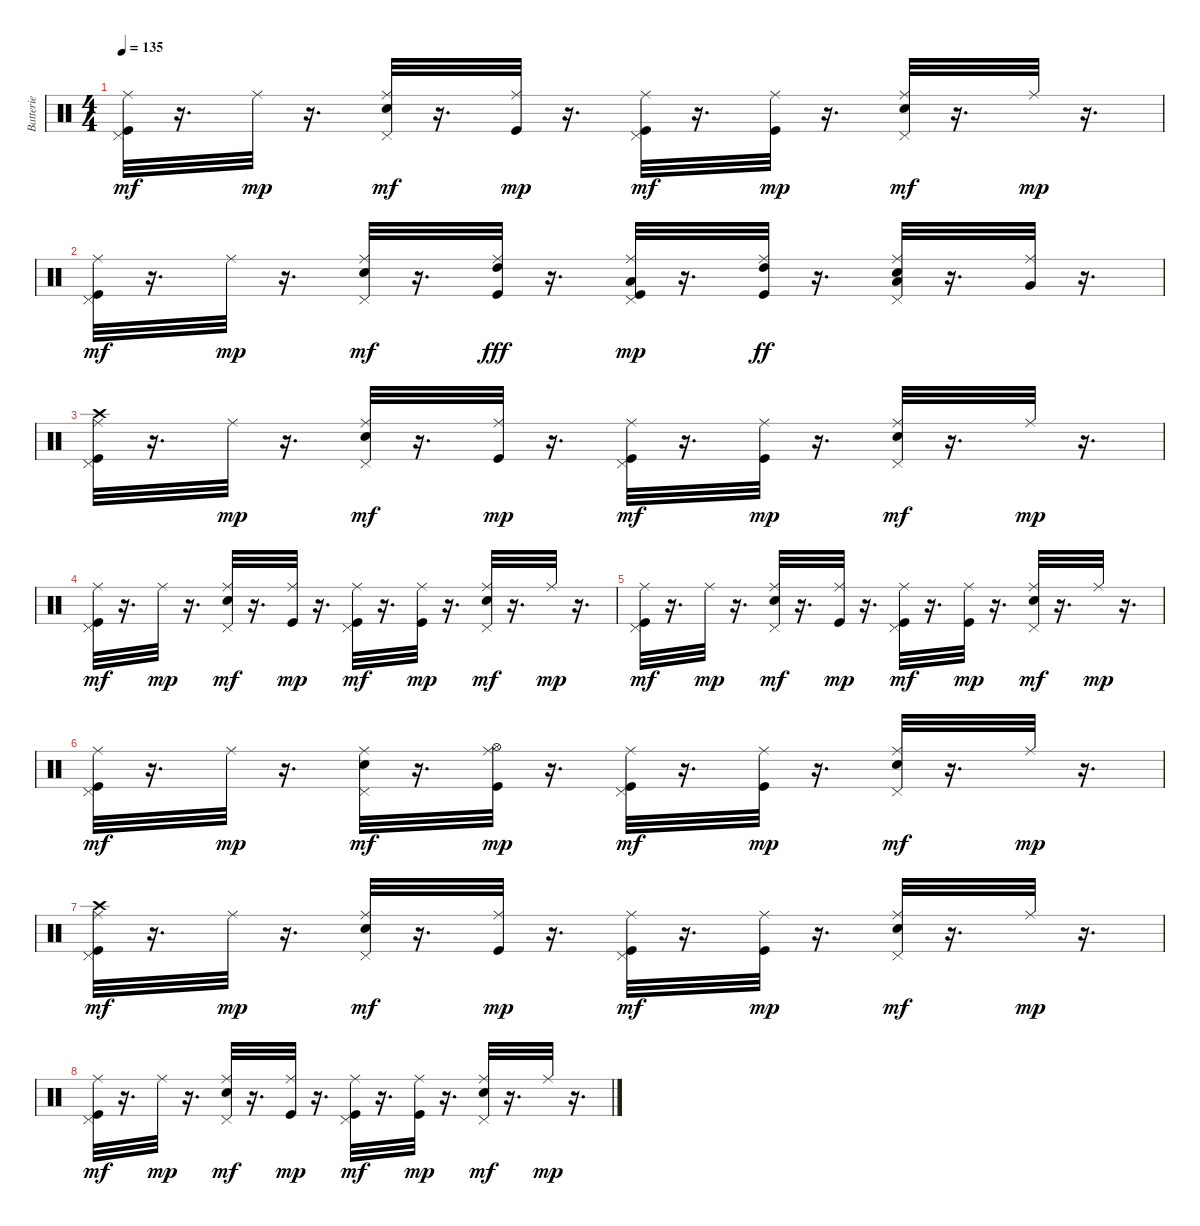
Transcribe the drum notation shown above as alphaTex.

\track ("Batterie" "Batterie") {instrument percussion}
\staff {score}
\articulation defaults
\ts (4 4)
\tempo 135
\clef neutral
\ks c
("Kick (hit)" "Pedal Hi-Hat (hit)" "Ride (middle)").32{dy mf} r.16{d} "Ride (middle)".32{dy mp} r.16{d} ("Electric Snare (hit)" "Pedal Hi-Hat (hit)" "Ride (middle)").32{dy mf} r.16{d} ("Kick (hit)" "Ride (middle)").32{dy mp} r.16{d} ("Kick (hit)" "Pedal Hi-Hat (hit)" "Ride (middle)").32{dy mf} r.16{d} ("Kick (hit)" "Ride (middle)").32{dy mp} r.16{d} ("Electric Snare (hit)" "Pedal Hi-Hat (hit)" "Ride (middle)").32{dy mf} r.16{d} "Ride (middle)".32{dy mp} r.16{d} |
("Kick (hit)" "Pedal Hi-Hat (hit)" "Ride (middle)").32{dy mf} r.16{d} "Ride (middle)".32{dy mp} r.16{d} ("Electric Snare (hit)" "Pedal Hi-Hat (hit)" "Ride (middle)").32{dy mf} r.16{d} ("Kick (hit)" "Ride (middle)" "High Tom (hit)").32{dy fff} r.16{d} ("Kick (hit)" "Pedal Hi-Hat (hit)" "Ride (middle)" "Low Tom (hit)").32{dy mp} r.16{d} ("Kick (hit)" "Ride (middle)" "High Tom (hit)").32{dy ff} r.16{d} ("Electric Snare (hit)" "Pedal Hi-Hat (hit)" "Ride (middle)" "Low Tom (hit)").32 r.16{d} ("Ride (middle)" "Very Low Tom (hit)").32 r.16{d} |
("Kick (hit)" "Pedal Hi-Hat (hit)" "Ride (middle)" "Crash high (hit)").32 r.16{d} "Ride (middle)".32{dy mp} r.16{d} ("Electric Snare (hit)" "Pedal Hi-Hat (hit)" "Ride (middle)").32{dy mf} r.16{d} ("Kick (hit)" "Ride (middle)").32{dy mp} r.16{d} ("Kick (hit)" "Pedal Hi-Hat (hit)" "Ride (middle)").32{dy mf} r.16{d} ("Kick (hit)" "Ride (middle)").32{dy mp} r.16{d} ("Electric Snare (hit)" "Pedal Hi-Hat (hit)" "Ride (middle)").32{dy mf} r.16{d} "Ride (middle)".32{dy mp} r.16{d} |
("Kick (hit)" "Pedal Hi-Hat (hit)" "Ride (middle)").32{dy mf} r.16{d} "Ride (middle)".32{dy mp} r.16{d} ("Electric Snare (hit)" "Pedal Hi-Hat (hit)" "Ride (middle)").32{dy mf} r.16{d} ("Kick (hit)" "Ride (middle)").32{dy mp} r.16{d} ("Kick (hit)" "Pedal Hi-Hat (hit)" "Ride (middle)").32{dy mf} r.16{d} ("Kick (hit)" "Ride (middle)").32{dy mp} r.16{d} ("Electric Snare (hit)" "Pedal Hi-Hat (hit)" "Ride (middle)").32{dy mf} r.16{d} "Ride (middle)".32{dy mp} r.16{d} |
("Kick (hit)" "Pedal Hi-Hat (hit)" "Ride (middle)").32{dy mf} r.16{d} "Ride (middle)".32{dy mp} r.16{d} ("Electric Snare (hit)" "Pedal Hi-Hat (hit)" "Ride (middle)").32{dy mf} r.16{d} ("Kick (hit)" "Ride (middle)").32{dy mp} r.16{d} ("Kick (hit)" "Pedal Hi-Hat (hit)" "Ride (middle)").32{dy mf} r.16{d} ("Kick (hit)" "Ride (middle)").32{dy mp} r.16{d} ("Electric Snare (hit)" "Pedal Hi-Hat (hit)" "Ride (middle)").32{dy mf} r.16{d} "Ride (middle)".32{dy mp} r.16{d} |
("Kick (hit)" "Pedal Hi-Hat (hit)" "Ride (middle)").32{dy mf} r.16{d} "Ride (middle)".32{dy mp} r.16{d} ("Electric Snare (hit)" "Pedal Hi-Hat (hit)" "Ride (middle)").32{dy mf} r.16{d} ("Kick (hit)" "Ride (middle)" "Hi-Hat (open)").32{dy mp} r.16{d} ("Kick (hit)" "Pedal Hi-Hat (hit)" "Ride (middle)").32{dy mf} r.16{d} ("Kick (hit)" "Ride (middle)").32{dy mp} r.16{d} ("Electric Snare (hit)" "Pedal Hi-Hat (hit)" "Ride (middle)").32{dy mf} r.16{d} "Ride (middle)".32{dy mp} r.16{d} |
("Kick (hit)" "Pedal Hi-Hat (hit)" "Ride (middle)" "Crash high (hit)").32{dy mf} r.16{d} "Ride (middle)".32{dy mp} r.16{d} ("Electric Snare (hit)" "Pedal Hi-Hat (hit)" "Ride (middle)").32{dy mf} r.16{d} ("Kick (hit)" "Ride (middle)").32{dy mp} r.16{d} ("Kick (hit)" "Pedal Hi-Hat (hit)" "Ride (middle)").32{dy mf} r.16{d} ("Kick (hit)" "Ride (middle)").32{dy mp} r.16{d} ("Electric Snare (hit)" "Pedal Hi-Hat (hit)" "Ride (middle)").32{dy mf} r.16{d} "Ride (middle)".32{dy mp} r.16{d} |
("Kick (hit)" "Pedal Hi-Hat (hit)" "Ride (middle)").32{dy mf} r.16{d} "Ride (middle)".32{dy mp} r.16{d} ("Electric Snare (hit)" "Pedal Hi-Hat (hit)" "Ride (middle)").32{dy mf} r.16{d} ("Kick (hit)" "Ride (middle)").32{dy mp} r.16{d} ("Kick (hit)" "Pedal Hi-Hat (hit)" "Ride (middle)").32{dy mf} r.16{d} ("Kick (hit)" "Ride (middle)").32{dy mp} r.16{d} ("Electric Snare (hit)" "Pedal Hi-Hat (hit)" "Ride (middle)").32{dy mf} r.16{d} "Ride (middle)".32{dy mp} r.16{d}
